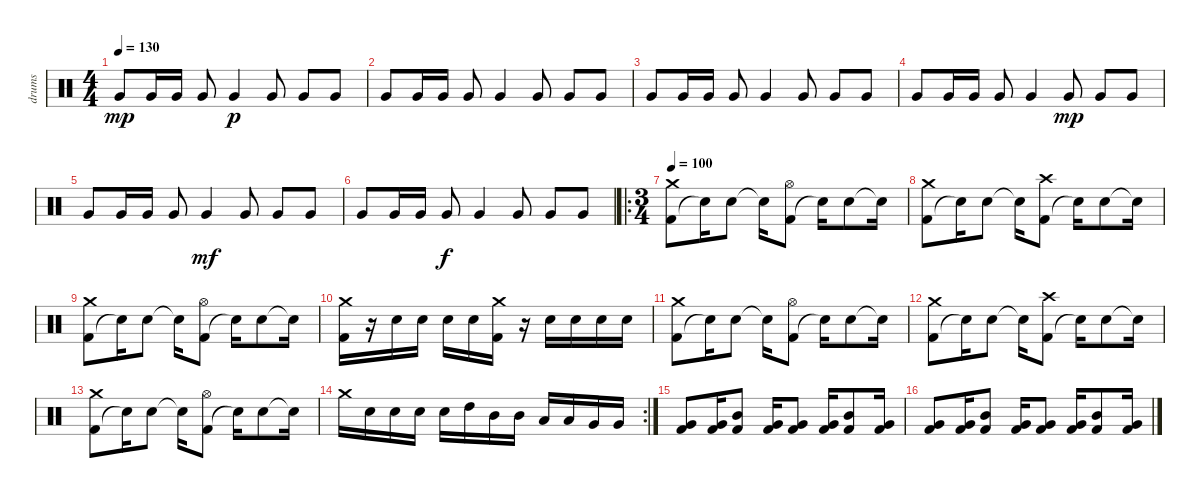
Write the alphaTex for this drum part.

\track ("drums" "drums") {instrument percussion}
\staff {score}
\articulation defaults
\ts (4 4)
\tempo 130
\clef neutral
\ks c "Very Low Tom (hit)".8{dy mp} "Very Low Tom (hit)".16 "Very Low Tom (hit)".16 "Very Low Tom (hit)".8 "Very Low Tom (hit)".4{dy p} "Very Low Tom (hit)".8 "Very Low Tom (hit)".8 "Very Low Tom (hit)".8
|
"Very Low Tom (hit)".8 "Very Low Tom (hit)".16 "Very Low Tom (hit)".16 "Very Low Tom (hit)".8 "Very Low Tom (hit)".4 "Very Low Tom (hit)".8 "Very Low Tom (hit)".8 "Very Low Tom (hit)".8 |
"Very Low Tom (hit)".8 "Very Low Tom (hit)".16 "Very Low Tom (hit)".16 "Very Low Tom (hit)".8 "Very Low Tom (hit)".4 "Very Low Tom (hit)".8 "Very Low Tom (hit)".8 "Very Low Tom (hit)".8 |
"Very Low Tom (hit)".8 "Very Low Tom (hit)".16 "Very Low Tom (hit)".16 "Very Low Tom (hit)".8 "Very Low Tom (hit)".4 "Very Low Tom (hit)".8{dy mp} "Very Low Tom (hit)".8 "Very Low Tom (hit)".8 |
"Very Low Tom (hit)".8 "Very Low Tom (hit)".16 "Very Low Tom (hit)".16 "Very Low Tom (hit)".8 "Very Low Tom (hit)".4{dy mf} "Very Low Tom (hit)".8 "Very Low Tom (hit)".8 "Very Low Tom (hit)".8 |
"Very Low Tom (hit)".8 "Very Low Tom (hit)".16 "Very Low Tom (hit)".16 "Very Low Tom (hit)".8{dy f} "Very Low Tom (hit)".4 "Very Low Tom (hit)".8 "Very Low Tom (hit)".8 "Very Low Tom (hit)".8 |
\ro
\ts (3 4)
\tempo 100
("Kick (hit) 2" "Crash medium (hit)").8 "Snare (hit)"{t}.16 "Electric Snare (hit)".8 "Snare (hit)"{t}.16 ("Kick (hit) 2" "Hi-Hat (open)").8 "Snare (hit)"{t}.16 "Electric Snare (hit)".8 "Snare (hit)"{t}.16 |
("Kick (hit) 2" "Crash medium (hit)").8 "Snare (hit)"{t}.16 "Electric Snare (hit)".8 "Snare (hit)"{t}.16 ("Kick (hit) 2" "Crash high (hit)").8 "Snare (hit)"{t}.16 "Electric Snare (hit)".8 "Snare (hit)"{t}.16 |
("Kick (hit) 2" "Crash medium (hit)").8 "Snare (hit)"{t}.16 "Electric Snare (hit)".8 "Snare (hit)"{t}.16 ("Kick (hit) 2" "Hi-Hat (open)").8 "Snare (hit)"{t}.16 "Electric Snare (hit)".8 "Snare (hit)"{t}.16 |
("Kick (hit) 2" "Crash medium (hit)").16 r.16 "Electric Snare (hit)".16 "Electric Snare (hit)".16 "Electric Snare (hit)".16 "Electric Snare (hit)".16 ("Kick (hit) 2" "Crash medium (hit)").16 r.16 "Electric Snare (hit)".16 "Electric Snare (hit)".16 "Electric Snare (hit)".16 "Electric Snare (hit)".16 |
("Kick (hit) 2" "Crash medium (hit)").8 "Snare (hit)"{t}.16 "Electric Snare (hit)".8 "Snare (hit)"{t}.16 ("Kick (hit) 2" "Hi-Hat (open)").8 "Snare (hit)"{t}.16 "Electric Snare (hit)".8 "Snare (hit)"{t}.16 |
("Kick (hit) 2" "Crash medium (hit)").8 "Snare (hit)"{t}.16 "Electric Snare (hit)".8 "Snare (hit)"{t}.16 ("Kick (hit) 2" "Crash high (hit)").8 "Snare (hit)"{t}.16 "Electric Snare (hit)".8 "Snare (hit)"{t}.16 |
("Kick (hit) 2" "Crash medium (hit)").8 "Snare (hit)"{t}.16 "Electric Snare (hit)".8 "Snare (hit)"{t}.16 ("Kick (hit) 2" "Hi-Hat (open)").8 "Snare (hit)"{t}.16 "Electric Snare (hit)".8 "Snare (hit)"{t}.16 |
\rc 2 "Crash medium (hit)".16 "Electric Snare (hit)".16 "Electric Snare (hit)".16 "Electric Snare (hit)".16 "Electric Snare (hit)".16 "High Tom (hit)".16 "Mid Tom (hit)".16 "Mid Tom (hit)".16 "Low Tom (hit)".16 "Low Tom (hit)".16 "Very Low Tom (hit)".16 "Very Low Tom (hit)".16
|
("Kick (hit) 2" "Very Low Tom (hit)").8 ("Kick (hit) 2" "Very Low Tom (hit)").16 ("Kick (hit) 2" "Mid Tom (hit)").8 ("Kick (hit) 2" "Very Low Tom (hit)").16 ("Kick (hit) 2" "Very Low Tom (hit)").8 ("Kick (hit) 2" "Very Low Tom (hit)").16 ("Kick (hit) 2" "Mid Tom (hit)").8 ("Kick (hit) 2" "Very Low Tom (hit)").16 |
("Kick (hit) 2" "Very Low Tom (hit)").8 ("Kick (hit) 2" "Very Low Tom (hit)").16 ("Kick (hit) 2" "Mid Tom (hit)").8 ("Kick (hit) 2" "Very Low Tom (hit)").16 ("Kick (hit) 2" "Very Low Tom (hit)").8 ("Kick (hit) 2" "Very Low Tom (hit)").16 ("Kick (hit) 2" "Mid Tom (hit)").8 ("Kick (hit) 2" "Very Low Tom (hit)").16
